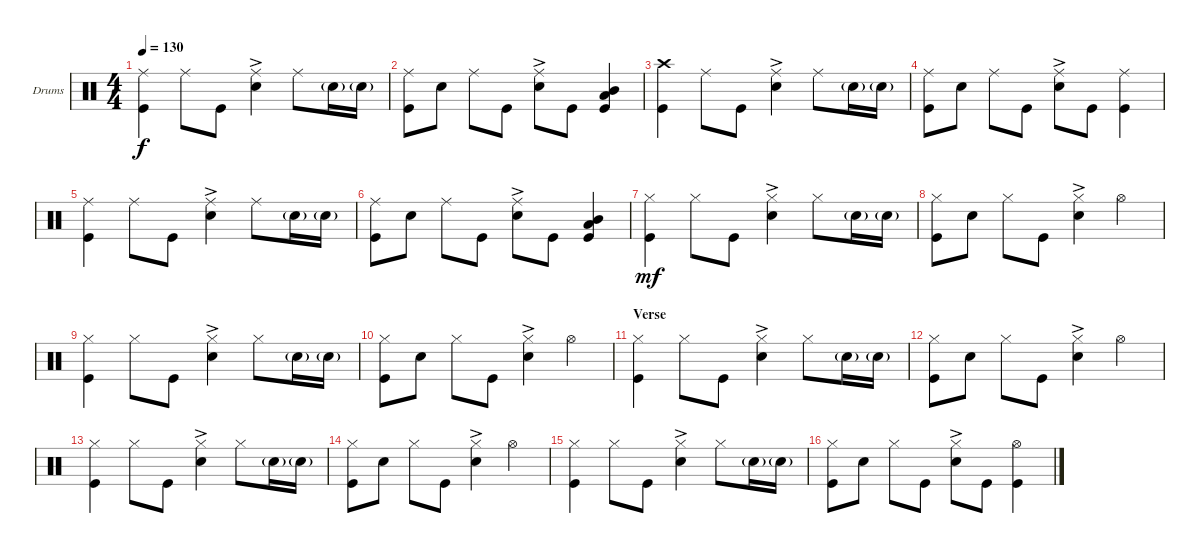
\bracketExtendMode groupsimilarinstruments
\firstSystemTrackNameOrientation horizontal
\otherSystemsTrackNameOrientation horizontal
\track ("Drumkit" "Drums") {instrument percussion}
\staff {score}
\articulation defaults
\ts (4 4)
\tempo 130
\clef neutral
\ks c
("Kick (hit)" "Ride (middle)").4{dy f} "Ride (middle)".8 "Kick (hit)".8 ("Snare (hit) 2"{ac} "Ride (middle)").4 "Ride (middle)".8 "Snare (hit) 2"{g}.16 "Snare (hit) 2"{g}.16 |
("Kick (hit)" "Ride (middle)").8 "Snare (hit) 2".8 "Ride (middle)".8 "Kick (hit)".8 ("Snare (hit) 2"{ac} "Ride (middle)").8 "Kick (hit)".8 ("Kick (hit)" "Mid Tom (hit)" "Low Tom (hit)").4 |
("Kick (hit)" "Crash high (hit)").4 "Ride (middle)".8 "Kick (hit)".8 ("Snare (hit) 2"{ac} "Ride (middle)").4 "Ride (middle)".8 "Snare (hit) 2"{g}.16 "Snare (hit) 2"{g}.16 |
("Kick (hit)" "Ride (middle)").8 "Snare (hit) 2".8 "Ride (middle)".8 "Kick (hit)".8 ("Snare (hit) 2"{ac} "Ride (middle)").8 "Kick (hit)".8 ("Kick (hit)" "Ride (middle)").4 |
("Kick (hit)" "Ride (middle)").4 "Ride (middle)".8 "Kick (hit)".8 ("Snare (hit) 2"{ac} "Ride (middle)").4 "Ride (middle)".8 "Snare (hit) 2"{g}.16 "Snare (hit) 2"{g}.16 |
("Kick (hit)" "Ride (middle)").8 "Snare (hit) 2".8 "Ride (middle)".8 "Kick (hit)".8 ("Snare (hit) 2"{ac} "Ride (middle)").8 "Kick (hit)".8 ("Kick (hit)" "Mid Tom (hit)" "Low Tom (hit)").4 |
("Hi-Hat (closed)" "Kick (hit)").4{dy mf} "Hi-Hat (closed)".8 "Kick (hit)".8 ("Snare (hit) 2"{ac} "Hi-Hat (closed)").4 "Hi-Hat (closed)".8 "Snare (hit) 2"{g}.16 "Snare (hit) 2"{g}.16 |
("Kick (hit)" "Hi-Hat (closed)").8 "Snare (hit) 2".8 "Hi-Hat (closed)".8 "Kick (hit)".8 ("Snare (hit) 2"{ac} "Hi-Hat (closed)").4 "Hi-Hat (open)".4 |
("Hi-Hat (closed)" "Kick (hit)").4 "Hi-Hat (closed)".8 "Kick (hit)".8 ("Snare (hit) 2"{ac} "Hi-Hat (closed)").4 "Hi-Hat (closed)".8 "Snare (hit) 2"{g}.16 "Snare (hit) 2"{g}.16 |
("Kick (hit)" "Hi-Hat (closed)").8 "Snare (hit) 2".8 "Hi-Hat (closed)".8 "Kick (hit)".8 ("Snare (hit) 2"{ac} "Hi-Hat (closed)").4 "Hi-Hat (open)".4 |
\section ("" "Verse")
("Hi-Hat (closed)" "Kick (hit)").4 "Hi-Hat (closed)".8 "Kick (hit)".8 ("Snare (hit) 2"{ac} "Hi-Hat (closed)").4 "Hi-Hat (closed)".8 "Snare (hit) 2"{g}.16 "Snare (hit) 2"{g}.16 |
("Kick (hit)" "Hi-Hat (closed)").8 "Snare (hit) 2".8 "Hi-Hat (closed)".8 "Kick (hit)".8 ("Snare (hit) 2"{ac} "Hi-Hat (closed)").4 "Hi-Hat (open)".4 |
("Hi-Hat (closed)" "Kick (hit)").4 "Hi-Hat (closed)".8 "Kick (hit)".8 ("Snare (hit) 2"{ac} "Hi-Hat (closed)").4 "Hi-Hat (closed)".8 "Snare (hit) 2"{g}.16 "Snare (hit) 2"{g}.16 |
("Kick (hit)" "Hi-Hat (closed)").8 "Snare (hit) 2".8 "Hi-Hat (closed)".8 "Kick (hit)".8 ("Snare (hit) 2"{ac} "Hi-Hat (closed)").4 "Hi-Hat (open)".4 |
("Hi-Hat (closed)" "Kick (hit)").4 "Hi-Hat (closed)".8 "Kick (hit)".8 ("Snare (hit) 2"{ac} "Hi-Hat (closed)").4 "Hi-Hat (closed)".8 "Snare (hit) 2"{g}.16 "Snare (hit) 2"{g}.16 |
("Kick (hit)" "Hi-Hat (closed)").8 "Snare (hit) 2".8 "Hi-Hat (closed)".8 "Kick (hit)".8 ("Snare (hit) 2"{ac} "Hi-Hat (closed)").8 "Kick (hit)".8 ("Hi-Hat (open)" "Kick (hit)").4
